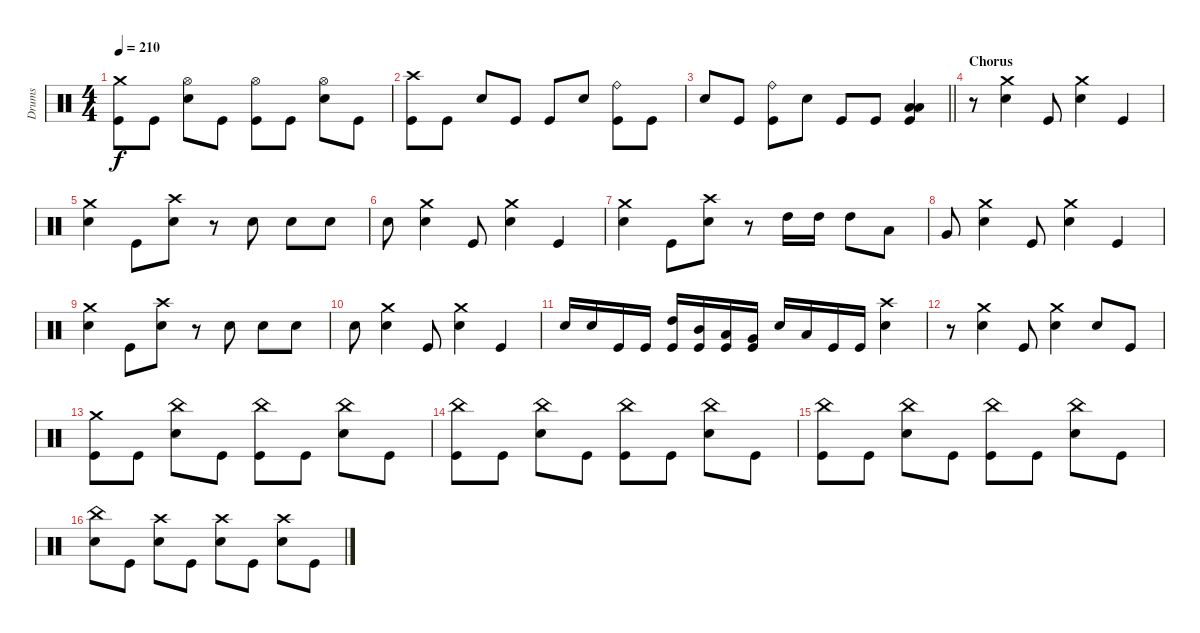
\track ("Drums" "Drums") {instrument percussion}
\staff {score}
\articulation defaults
\ts (4 4)
\tempo 210
\clef neutral
\ks c
("Crash medium (hit)" "Kick (hit)").8{dy f} "Kick (hit)".8 ("Hi-Hat (open)" "Snare (hit) 2").8 "Kick (hit)".8 ("Hi-Hat (open)" "Kick (hit)").8 "Kick (hit)".8 ("Hi-Hat (open)" "Snare (hit) 2").8 "Kick (hit)".8 |
("Crash high (hit)" "Kick (hit)").8 "Kick (hit)".8 "Snare (hit) 2".8 "Kick (hit)".8 "Kick (hit)".8 "Snare (hit) 2".8 ("Ride (bell)" "Kick (hit)").8 "Kick (hit)".8 |
\barLineRight lightlight "Snare (hit) 2".8 "Kick (hit)".8
("Ride (bell)" "Kick (hit)").8 "Snare (hit) 2".8 "Kick (hit)".8 "Kick (hit)".8 ("Low Tom (hit)" "Low Floor Tom (hit)" "Kick (hit)").4 |
\section ("" "Chorus")
r.8 ("Crash medium (hit)" "Snare (hit) 2").4 "Kick (hit)".8 ("Crash medium (hit)" "Snare (hit) 2").4 "Kick (hit)".4 |
("Crash medium (hit)" "Snare (hit) 2").4 "Kick (hit)".8 ("Crash high (hit)" "Snare (hit) 2").8 r.8 "Snare (hit) 2".8 "Snare (hit) 2".8 "Snare (hit) 2".8 |
"Snare (hit) 2".8 ("Crash medium (hit)" "Snare (hit) 2").4 "Kick (hit)".8 ("Crash medium (hit)" "Snare (hit) 2").4 "Kick (hit)".4 |
("Crash medium (hit)" "Snare (hit) 2").4 "Kick (hit)".8 ("Crash high (hit)" "Snare (hit) 2").8 r.8 "High Tom (hit)".16 "High Tom (hit)".16 "High Tom (hit)".8 "Low Tom (hit)".8 |
"Very Low Tom (hit)".8 ("Crash medium (hit)" "Snare (hit) 2").4 "Kick (hit)".8 ("Crash medium (hit)" "Snare (hit) 2").4 "Kick (hit)".4 |
("Crash medium (hit)" "Snare (hit) 2").4 "Kick (hit)".8 ("Crash high (hit)" "Snare (hit) 2").8 r.8 "Snare (hit) 2".8 "Snare (hit) 2".8 "Snare (hit) 2".8 |
"Snare (hit) 2".8 ("Crash medium (hit)" "Snare (hit) 2").4 "Kick (hit)".8 ("Crash medium (hit)" "Snare (hit) 2").4 "Kick (hit)".4 |
"Snare (hit) 2".16 "Snare (hit) 2".16 "Kick (hit)".16 "Kick (hit)".16 ("High Tom (hit)" "Kick (hit)").16 ("Mid Tom (hit)" "Kick (hit)").16 ("Low Tom (hit)" "Kick (hit)").16 ("Very Low Tom (hit)" "Kick (hit)").16 "Snare (hit) 2".16 "Low Floor Tom (hit)".16 "Kick (hit)".16 "Kick (hit)".16 ("Crash high (hit)" "Snare (hit) 2").4 |
r.8 ("Crash medium (hit)" "Snare (hit) 2").4 "Kick (hit)".8 ("Crash medium (hit)" "Snare (hit) 2").4 "Snare (hit) 2".8 "Kick (hit)".8 |
("Crash medium (hit)" "Kick (hit)").8 "Kick (hit)".8 ("China (hit)" "Snare (hit) 2").8 "Kick (hit)".8 ("China (hit)" "Kick (hit)").8 "Kick (hit)".8 ("China (hit)" "Snare (hit) 2").8 "Kick (hit)".8 |
("China (hit)" "Kick (hit)").8 "Kick (hit)".8 ("China (hit)" "Snare (hit) 2").8 "Kick (hit)".8 ("China (hit)" "Kick (hit)").8 "Kick (hit)".8 ("China (hit)" "Snare (hit) 2").8 "Kick (hit)".8 |
("China (hit)" "Kick (hit)").8 "Kick (hit)".8 ("China (hit)" "Snare (hit) 2").8 "Kick (hit)".8 ("China (hit)" "Kick (hit)").8 "Kick (hit)".8 ("China (hit)" "Snare (hit) 2").8 "Kick (hit)".8 |
("China (hit)" "Snare (hit) 2").8 "Kick (hit)".8 ("Crash high (hit)" "Snare (hit) 2").8 "Kick (hit)".8 ("Crash high (hit)" "Snare (hit) 2").8 "Kick (hit)".8 ("Crash high (hit)" "Snare (hit) 2").8 "Kick (hit)".8
